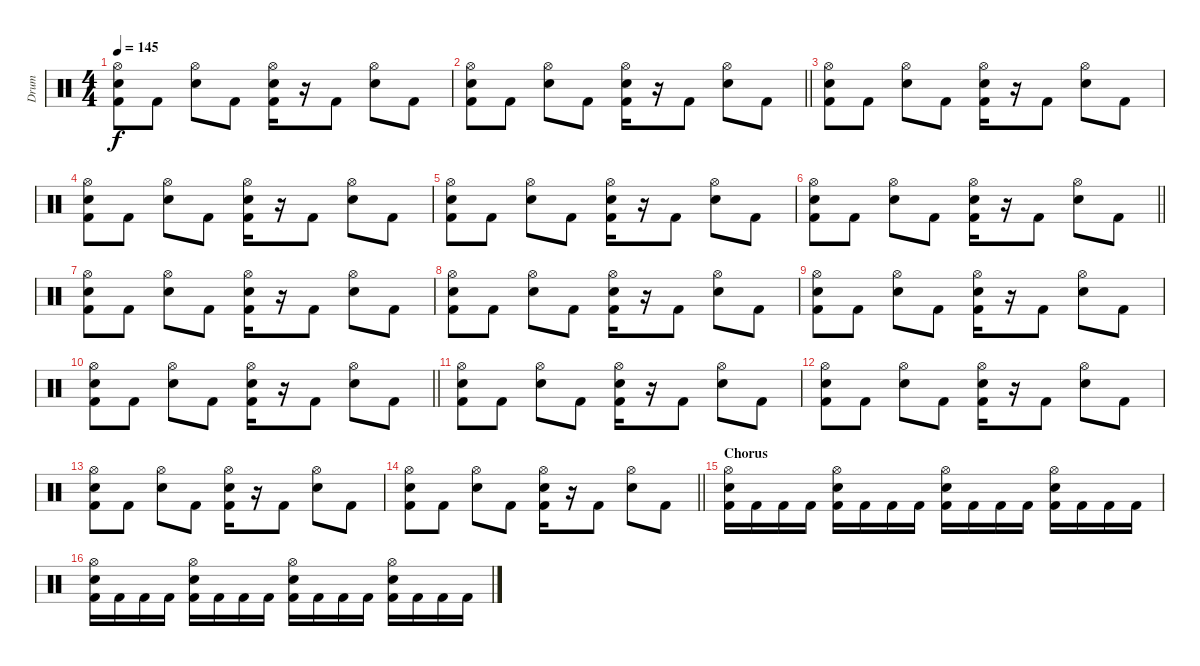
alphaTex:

\track ("Drum" "Drum") {instrument percussion}
\staff {score}
\articulation defaults
\ts (4 4)
\tempo 145
\clef neutral
\ks c
("Hi-Hat (open)" "Electric Snare (hit)" "Kick (hit) 2").8{dy f} "Kick (hit) 2".8 ("Hi-Hat (open)" "Electric Snare (hit)").8 "Kick (hit) 2".8 ("Hi-Hat (open)" "Electric Snare (hit)" "Kick (hit) 2").16 r.16 "Kick (hit) 2".8 ("Hi-Hat (open)" "Electric Snare (hit)").8 "Kick (hit) 2".8 |
\barLineRight lightlight
("Hi-Hat (open)" "Electric Snare (hit)" "Kick (hit) 2").8 "Kick (hit) 2".8 ("Hi-Hat (open)" "Electric Snare (hit)").8 "Kick (hit) 2".8 ("Hi-Hat (open)" "Electric Snare (hit)" "Kick (hit) 2").16 r.16 "Kick (hit) 2".8 ("Hi-Hat (open)" "Electric Snare (hit)").8 "Kick (hit) 2".8 |
("Hi-Hat (open)" "Electric Snare (hit)" "Kick (hit) 2").8 "Kick (hit) 2".8 ("Hi-Hat (open)" "Electric Snare (hit)").8 "Kick (hit) 2".8 ("Hi-Hat (open)" "Electric Snare (hit)" "Kick (hit) 2").16 r.16 "Kick (hit) 2".8 ("Hi-Hat (open)" "Electric Snare (hit)").8 "Kick (hit) 2".8 |
("Hi-Hat (open)" "Electric Snare (hit)" "Kick (hit) 2").8 "Kick (hit) 2".8 ("Hi-Hat (open)" "Electric Snare (hit)").8 "Kick (hit) 2".8 ("Hi-Hat (open)" "Electric Snare (hit)" "Kick (hit) 2").16 r.16 "Kick (hit) 2".8 ("Hi-Hat (open)" "Electric Snare (hit)").8 "Kick (hit) 2".8 |
("Hi-Hat (open)" "Electric Snare (hit)" "Kick (hit) 2").8 "Kick (hit) 2".8 ("Hi-Hat (open)" "Electric Snare (hit)").8 "Kick (hit) 2".8 ("Hi-Hat (open)" "Electric Snare (hit)" "Kick (hit) 2").16 r.16 "Kick (hit) 2".8 ("Hi-Hat (open)" "Electric Snare (hit)").8 "Kick (hit) 2".8 |
\barLineRight lightlight
("Hi-Hat (open)" "Electric Snare (hit)" "Kick (hit) 2").8 "Kick (hit) 2".8 ("Hi-Hat (open)" "Electric Snare (hit)").8 "Kick (hit) 2".8 ("Hi-Hat (open)" "Electric Snare (hit)" "Kick (hit) 2").16 r.16 "Kick (hit) 2".8 ("Hi-Hat (open)" "Electric Snare (hit)").8 "Kick (hit) 2".8 |
("Hi-Hat (open)" "Electric Snare (hit)" "Kick (hit) 2").8 "Kick (hit) 2".8 ("Hi-Hat (open)" "Electric Snare (hit)").8 "Kick (hit) 2".8 ("Hi-Hat (open)" "Electric Snare (hit)" "Kick (hit) 2").16 r.16 "Kick (hit) 2".8 ("Hi-Hat (open)" "Electric Snare (hit)").8 "Kick (hit) 2".8 |
("Hi-Hat (open)" "Electric Snare (hit)" "Kick (hit) 2").8 "Kick (hit) 2".8 ("Hi-Hat (open)" "Electric Snare (hit)").8 "Kick (hit) 2".8 ("Hi-Hat (open)" "Electric Snare (hit)" "Kick (hit) 2").16 r.16 "Kick (hit) 2".8 ("Hi-Hat (open)" "Electric Snare (hit)").8 "Kick (hit) 2".8 |
("Hi-Hat (open)" "Electric Snare (hit)" "Kick (hit) 2").8 "Kick (hit) 2".8 ("Hi-Hat (open)" "Electric Snare (hit)").8 "Kick (hit) 2".8 ("Hi-Hat (open)" "Electric Snare (hit)" "Kick (hit) 2").16 r.16 "Kick (hit) 2".8 ("Hi-Hat (open)" "Electric Snare (hit)").8 "Kick (hit) 2".8 |
\barLineRight lightlight
("Hi-Hat (open)" "Electric Snare (hit)" "Kick (hit) 2").8 "Kick (hit) 2".8 ("Hi-Hat (open)" "Electric Snare (hit)").8 "Kick (hit) 2".8 ("Hi-Hat (open)" "Electric Snare (hit)" "Kick (hit) 2").16 r.16 "Kick (hit) 2".8 ("Hi-Hat (open)" "Electric Snare (hit)").8 "Kick (hit) 2".8 |
("Hi-Hat (open)" "Electric Snare (hit)" "Kick (hit) 2").8 "Kick (hit) 2".8 ("Hi-Hat (open)" "Electric Snare (hit)").8 "Kick (hit) 2".8 ("Hi-Hat (open)" "Electric Snare (hit)" "Kick (hit) 2").16 r.16 "Kick (hit) 2".8 ("Hi-Hat (open)" "Electric Snare (hit)").8 "Kick (hit) 2".8 |
("Hi-Hat (open)" "Electric Snare (hit)" "Kick (hit) 2").8 "Kick (hit) 2".8 ("Hi-Hat (open)" "Electric Snare (hit)").8 "Kick (hit) 2".8 ("Hi-Hat (open)" "Electric Snare (hit)" "Kick (hit) 2").16 r.16 "Kick (hit) 2".8 ("Hi-Hat (open)" "Electric Snare (hit)").8 "Kick (hit) 2".8 |
("Hi-Hat (open)" "Electric Snare (hit)" "Kick (hit) 2").8 "Kick (hit) 2".8 ("Hi-Hat (open)" "Electric Snare (hit)").8 "Kick (hit) 2".8 ("Hi-Hat (open)" "Electric Snare (hit)" "Kick (hit) 2").16 r.16 "Kick (hit) 2".8 ("Hi-Hat (open)" "Electric Snare (hit)").8 "Kick (hit) 2".8 |
\barLineRight lightlight
("Hi-Hat (open)" "Electric Snare (hit)" "Kick (hit) 2").8 "Kick (hit) 2".8 ("Hi-Hat (open)" "Electric Snare (hit)").8 "Kick (hit) 2".8 ("Hi-Hat (open)" "Electric Snare (hit)" "Kick (hit) 2").16 r.16 "Kick (hit) 2".8 ("Hi-Hat (open)" "Electric Snare (hit)").8 "Kick (hit) 2".8 |
\section ("" "Chorus")
("Hi-Hat (open)" "Electric Snare (hit)" "Kick (hit) 2").16 "Kick (hit) 2".16 "Kick (hit) 2".16 "Kick (hit) 2".16 ("Hi-Hat (open)" "Electric Snare (hit)" "Kick (hit) 2").16 "Kick (hit) 2".16 "Kick (hit) 2".16 "Kick (hit) 2".16 ("Hi-Hat (open)" "Electric Snare (hit)" "Kick (hit) 2").16 "Kick (hit) 2".16 "Kick (hit) 2".16 "Kick (hit) 2".16 ("Hi-Hat (open)" "Electric Snare (hit)" "Kick (hit) 2").16 "Kick (hit) 2".16 "Kick (hit) 2".16 "Kick (hit) 2".16 |
("Hi-Hat (open)" "Electric Snare (hit)" "Kick (hit) 2").16 "Kick (hit) 2".16 "Kick (hit) 2".16 "Kick (hit) 2".16 ("Hi-Hat (open)" "Electric Snare (hit)" "Kick (hit) 2").16 "Kick (hit) 2".16 "Kick (hit) 2".16 "Kick (hit) 2".16 ("Hi-Hat (open)" "Electric Snare (hit)" "Kick (hit) 2").16 "Kick (hit) 2".16 "Kick (hit) 2".16 "Kick (hit) 2".16 ("Hi-Hat (open)" "Electric Snare (hit)" "Kick (hit) 2").16 "Kick (hit) 2".16 "Kick (hit) 2".16 "Kick (hit) 2".16
